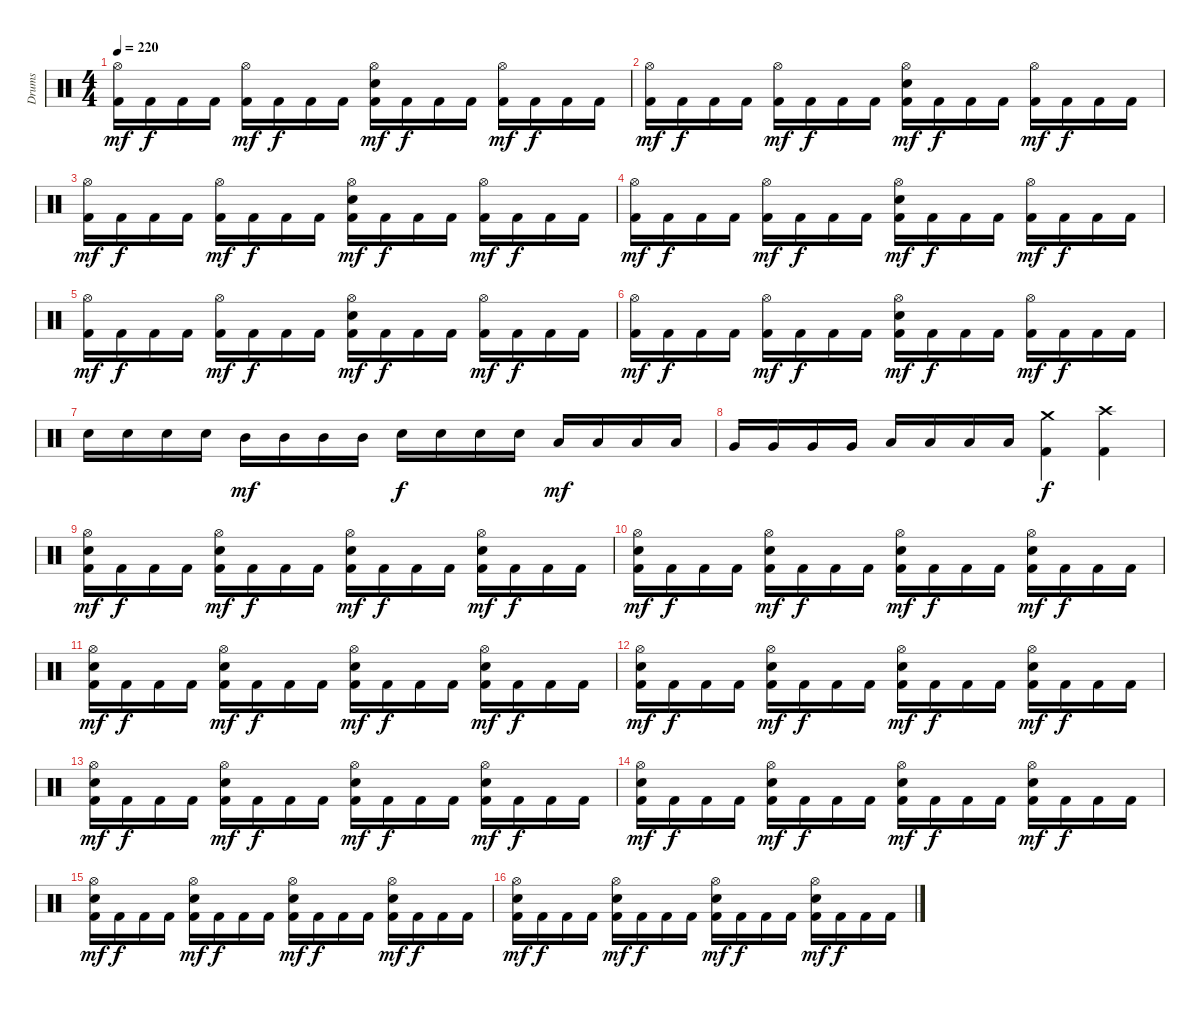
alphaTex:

\track ("Drums" "Drums") {instrument percussion}
\staff {score}
\articulation defaults
\ts (4 4)
\tempo 220
\clef neutral
\ks c
("Hi-Hat (open)" "Kick (hit) 2").16{dy mf} "Kick (hit) 2".16{dy f} "Kick (hit) 2".16 "Kick (hit) 2".16 ("Hi-Hat (open)" "Kick (hit) 2").16{dy mf} "Kick (hit) 2".16{dy f} "Kick (hit) 2".16 "Kick (hit) 2".16 ("Hi-Hat (open)" "Electric Snare (hit)" "Kick (hit) 2").16{dy mf} "Kick (hit) 2".16{dy f} "Kick (hit) 2".16 "Kick (hit) 2".16 ("Hi-Hat (open)" "Kick (hit) 2").16{dy mf} "Kick (hit) 2".16{dy f} "Kick (hit) 2".16 "Kick (hit) 2".16 |
("Hi-Hat (open)" "Kick (hit) 2").16{dy mf} "Kick (hit) 2".16{dy f} "Kick (hit) 2".16 "Kick (hit) 2".16 ("Hi-Hat (open)" "Kick (hit) 2").16{dy mf} "Kick (hit) 2".16{dy f} "Kick (hit) 2".16 "Kick (hit) 2".16 ("Hi-Hat (open)" "Electric Snare (hit)" "Kick (hit) 2").16{dy mf} "Kick (hit) 2".16{dy f} "Kick (hit) 2".16 "Kick (hit) 2".16 ("Hi-Hat (open)" "Kick (hit) 2").16{dy mf} "Kick (hit) 2".16{dy f} "Kick (hit) 2".16 "Kick (hit) 2".16 |
("Hi-Hat (open)" "Kick (hit) 2").16{dy mf} "Kick (hit) 2".16{dy f} "Kick (hit) 2".16 "Kick (hit) 2".16 ("Hi-Hat (open)" "Kick (hit) 2").16{dy mf} "Kick (hit) 2".16{dy f} "Kick (hit) 2".16 "Kick (hit) 2".16 ("Hi-Hat (open)" "Electric Snare (hit)" "Kick (hit) 2").16{dy mf} "Kick (hit) 2".16{dy f} "Kick (hit) 2".16 "Kick (hit) 2".16 ("Hi-Hat (open)" "Kick (hit) 2").16{dy mf} "Kick (hit) 2".16{dy f} "Kick (hit) 2".16 "Kick (hit) 2".16 |
("Hi-Hat (open)" "Kick (hit) 2").16{dy mf} "Kick (hit) 2".16{dy f} "Kick (hit) 2".16 "Kick (hit) 2".16 ("Hi-Hat (open)" "Kick (hit) 2").16{dy mf} "Kick (hit) 2".16{dy f} "Kick (hit) 2".16 "Kick (hit) 2".16 ("Hi-Hat (open)" "Electric Snare (hit)" "Kick (hit) 2").16{dy mf} "Kick (hit) 2".16{dy f} "Kick (hit) 2".16 "Kick (hit) 2".16 ("Hi-Hat (open)" "Kick (hit) 2").16{dy mf} "Kick (hit) 2".16{dy f} "Kick (hit) 2".16 "Kick (hit) 2".16 |
("Hi-Hat (open)" "Kick (hit) 2").16{dy mf} "Kick (hit) 2".16{dy f} "Kick (hit) 2".16 "Kick (hit) 2".16 ("Hi-Hat (open)" "Kick (hit) 2").16{dy mf} "Kick (hit) 2".16{dy f} "Kick (hit) 2".16 "Kick (hit) 2".16 ("Hi-Hat (open)" "Electric Snare (hit)" "Kick (hit) 2").16{dy mf} "Kick (hit) 2".16{dy f} "Kick (hit) 2".16 "Kick (hit) 2".16 ("Hi-Hat (open)" "Kick (hit) 2").16{dy mf} "Kick (hit) 2".16{dy f} "Kick (hit) 2".16 "Kick (hit) 2".16 |
("Hi-Hat (open)" "Kick (hit) 2").16{dy mf} "Kick (hit) 2".16{dy f} "Kick (hit) 2".16 "Kick (hit) 2".16 ("Hi-Hat (open)" "Kick (hit) 2").16{dy mf} "Kick (hit) 2".16{dy f} "Kick (hit) 2".16 "Kick (hit) 2".16 ("Hi-Hat (open)" "Electric Snare (hit)" "Kick (hit) 2").16{dy mf} "Kick (hit) 2".16{dy f} "Kick (hit) 2".16 "Kick (hit) 2".16 ("Hi-Hat (open)" "Kick (hit) 2").16{dy mf} "Kick (hit) 2".16{dy f} "Kick (hit) 2".16 "Kick (hit) 2".16 |
"Electric Snare (hit)".16 "Electric Snare (hit)".16 "Electric Snare (hit)".16 "Electric Snare (hit)".16 "Mid Tom (hit)".16{dy mf} "Mid Tom (hit)".16 "Mid Tom (hit)".16 "Mid Tom (hit)".16 "Electric Snare (hit)".16{dy f} "Electric Snare (hit)".16 "Electric Snare (hit)".16 "Electric Snare (hit)".16 "Low Tom (hit)".16{dy mf} "Low Tom (hit)".16 "Low Tom (hit)".16 "Low Tom (hit)".16 |
"Very Low Tom (hit)".16 "Very Low Tom (hit)".16 "Very Low Tom (hit)".16 "Very Low Tom (hit)".16 "Low Floor Tom (hit)".16 "Low Floor Tom (hit)".16 "Low Floor Tom (hit)".16 "Low Floor Tom (hit)".16 ("Crash medium (hit)" "Kick (hit) 2").4{dy f} ("Crash high (hit)" "Kick (hit) 2").4 |
("Hi-Hat (open)" "Electric Snare (hit)" "Kick (hit) 2").16{dy mf} "Kick (hit) 2".16{dy f} "Kick (hit) 2".16 "Kick (hit) 2".16 ("Hi-Hat (open)" "Electric Snare (hit)" "Kick (hit) 2").16{dy mf} "Kick (hit) 2".16{dy f} "Kick (hit) 2".16 "Kick (hit) 2".16 ("Hi-Hat (open)" "Electric Snare (hit)" "Kick (hit) 2").16{dy mf} "Kick (hit) 2".16{dy f} "Kick (hit) 2".16 "Kick (hit) 2".16 ("Hi-Hat (open)" "Electric Snare (hit)" "Kick (hit) 2").16{dy mf} "Kick (hit) 2".16{dy f} "Kick (hit) 2".16 "Kick (hit) 2".16 |
("Hi-Hat (open)" "Electric Snare (hit)" "Kick (hit) 2").16{dy mf} "Kick (hit) 2".16{dy f} "Kick (hit) 2".16 "Kick (hit) 2".16 ("Hi-Hat (open)" "Electric Snare (hit)" "Kick (hit) 2").16{dy mf} "Kick (hit) 2".16{dy f} "Kick (hit) 2".16 "Kick (hit) 2".16 ("Hi-Hat (open)" "Electric Snare (hit)" "Kick (hit) 2").16{dy mf} "Kick (hit) 2".16{dy f} "Kick (hit) 2".16 "Kick (hit) 2".16 ("Hi-Hat (open)" "Electric Snare (hit)" "Kick (hit) 2").16{dy mf} "Kick (hit) 2".16{dy f} "Kick (hit) 2".16 "Kick (hit) 2".16 |
("Hi-Hat (open)" "Electric Snare (hit)" "Kick (hit) 2").16{dy mf} "Kick (hit) 2".16{dy f} "Kick (hit) 2".16 "Kick (hit) 2".16 ("Hi-Hat (open)" "Electric Snare (hit)" "Kick (hit) 2").16{dy mf} "Kick (hit) 2".16{dy f} "Kick (hit) 2".16 "Kick (hit) 2".16 ("Hi-Hat (open)" "Electric Snare (hit)" "Kick (hit) 2").16{dy mf} "Kick (hit) 2".16{dy f} "Kick (hit) 2".16 "Kick (hit) 2".16 ("Hi-Hat (open)" "Electric Snare (hit)" "Kick (hit) 2").16{dy mf} "Kick (hit) 2".16{dy f} "Kick (hit) 2".16 "Kick (hit) 2".16 |
("Hi-Hat (open)" "Electric Snare (hit)" "Kick (hit) 2").16{dy mf} "Kick (hit) 2".16{dy f} "Kick (hit) 2".16 "Kick (hit) 2".16 ("Hi-Hat (open)" "Electric Snare (hit)" "Kick (hit) 2").16{dy mf} "Kick (hit) 2".16{dy f} "Kick (hit) 2".16 "Kick (hit) 2".16 ("Hi-Hat (open)" "Electric Snare (hit)" "Kick (hit) 2").16{dy mf} "Kick (hit) 2".16{dy f} "Kick (hit) 2".16 "Kick (hit) 2".16 ("Hi-Hat (open)" "Electric Snare (hit)" "Kick (hit) 2").16{dy mf} "Kick (hit) 2".16{dy f} "Kick (hit) 2".16 "Kick (hit) 2".16 |
("Hi-Hat (open)" "Electric Snare (hit)" "Kick (hit) 2").16{dy mf} "Kick (hit) 2".16{dy f} "Kick (hit) 2".16 "Kick (hit) 2".16 ("Hi-Hat (open)" "Electric Snare (hit)" "Kick (hit) 2").16{dy mf} "Kick (hit) 2".16{dy f} "Kick (hit) 2".16 "Kick (hit) 2".16 ("Hi-Hat (open)" "Electric Snare (hit)" "Kick (hit) 2").16{dy mf} "Kick (hit) 2".16{dy f} "Kick (hit) 2".16 "Kick (hit) 2".16 ("Hi-Hat (open)" "Electric Snare (hit)" "Kick (hit) 2").16{dy mf} "Kick (hit) 2".16{dy f} "Kick (hit) 2".16 "Kick (hit) 2".16 |
("Hi-Hat (open)" "Electric Snare (hit)" "Kick (hit) 2").16{dy mf} "Kick (hit) 2".16{dy f} "Kick (hit) 2".16 "Kick (hit) 2".16 ("Hi-Hat (open)" "Electric Snare (hit)" "Kick (hit) 2").16{dy mf} "Kick (hit) 2".16{dy f} "Kick (hit) 2".16 "Kick (hit) 2".16 ("Hi-Hat (open)" "Electric Snare (hit)" "Kick (hit) 2").16{dy mf} "Kick (hit) 2".16{dy f} "Kick (hit) 2".16 "Kick (hit) 2".16 ("Hi-Hat (open)" "Electric Snare (hit)" "Kick (hit) 2").16{dy mf} "Kick (hit) 2".16{dy f} "Kick (hit) 2".16 "Kick (hit) 2".16 |
("Hi-Hat (open)" "Electric Snare (hit)" "Kick (hit) 2").16{dy mf} "Kick (hit) 2".16{dy f} "Kick (hit) 2".16 "Kick (hit) 2".16 ("Hi-Hat (open)" "Electric Snare (hit)" "Kick (hit) 2").16{dy mf} "Kick (hit) 2".16{dy f} "Kick (hit) 2".16 "Kick (hit) 2".16 ("Hi-Hat (open)" "Electric Snare (hit)" "Kick (hit) 2").16{dy mf} "Kick (hit) 2".16{dy f} "Kick (hit) 2".16 "Kick (hit) 2".16 ("Hi-Hat (open)" "Electric Snare (hit)" "Kick (hit) 2").16{dy mf} "Kick (hit) 2".16{dy f} "Kick (hit) 2".16 "Kick (hit) 2".16 |
("Hi-Hat (open)" "Electric Snare (hit)" "Kick (hit) 2").16{dy mf} "Kick (hit) 2".16{dy f} "Kick (hit) 2".16 "Kick (hit) 2".16 ("Hi-Hat (open)" "Electric Snare (hit)" "Kick (hit) 2").16{dy mf} "Kick (hit) 2".16{dy f} "Kick (hit) 2".16 "Kick (hit) 2".16 ("Hi-Hat (open)" "Electric Snare (hit)" "Kick (hit) 2").16{dy mf} "Kick (hit) 2".16{dy f} "Kick (hit) 2".16 "Kick (hit) 2".16 ("Hi-Hat (open)" "Electric Snare (hit)" "Kick (hit) 2").16{dy mf} "Kick (hit) 2".16{dy f} "Kick (hit) 2".16 "Kick (hit) 2".16
